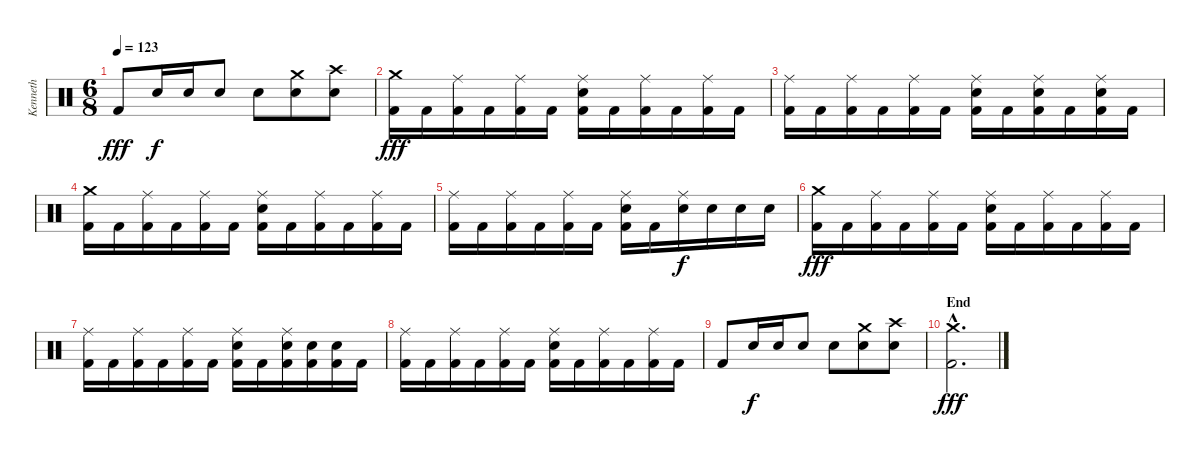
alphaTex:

\track ("Kenneth" "Kenneth") {instrument percussion}
\staff {score}
\articulation defaults
\ts (6 8)
\tempo 123
\clef neutral
\ks c "Kick (hit) 2".8{dy fff} "Snare (hit) 2".16{dy f} "Snare (hit) 2".16 "Snare (hit) 2".8 "Snare (hit) 2".8
("Crash medium (hit)" "Snare (hit) 2").8 ("Crash high (hit)" "Snare (hit) 2").8 |
("Crash medium (hit)" "Kick (hit) 2").16{dy fff} "Kick (hit) 2".16 ("Ride (middle)" "Kick (hit) 2").16 "Kick (hit) 2".16 ("Ride (middle)" "Kick (hit) 2").16 "Kick (hit) 2".16 ("Ride (middle)" "Snare (hit) 2" "Kick (hit) 2").16 "Kick (hit) 2".16 ("Ride (middle)" "Kick (hit) 2").16 "Kick (hit) 2".16 ("Ride (middle)" "Kick (hit) 2").16 "Kick (hit) 2".16 |
("Ride (middle)" "Kick (hit) 2").16 "Kick (hit) 2".16 ("Ride (middle)" "Kick (hit) 2").16 "Kick (hit) 2".16 ("Ride (middle)" "Kick (hit) 2").16 "Kick (hit) 2".16 ("Ride (middle)" "Snare (hit) 2" "Kick (hit) 2").16 "Kick (hit) 2".16 ("Ride (middle)" "Snare (hit) 2" "Kick (hit) 2").16 "Kick (hit) 2".16 ("Ride (middle)" "Snare (hit) 2" "Kick (hit) 2").16 "Kick (hit) 2".16 |
("Crash medium (hit)" "Kick (hit) 2").16 "Kick (hit) 2".16 ("Ride (middle)" "Kick (hit) 2").16 "Kick (hit) 2".16 ("Ride (middle)" "Kick (hit) 2").16 "Kick (hit) 2".16 ("Ride (middle)" "Snare (hit) 2" "Kick (hit) 2").16 "Kick (hit) 2".16 ("Ride (middle)" "Kick (hit) 2").16 "Kick (hit) 2".16 ("Ride (middle)" "Kick (hit) 2").16 "Kick (hit) 2".16 |
("Ride (middle)" "Kick (hit) 2").16 "Kick (hit) 2".16 ("Ride (middle)" "Kick (hit) 2").16 "Kick (hit) 2".16 ("Ride (middle)" "Kick (hit) 2").16 "Kick (hit) 2".16 ("Ride (middle)" "Snare (hit) 2" "Kick (hit) 2").16 "Kick (hit) 2".16 ("Ride (middle)" "Snare (hit) 2").16{dy f} "Snare (hit) 2".16 "Snare (hit) 2".16 "Snare (hit) 2".16 |
("Crash medium (hit)" "Kick (hit) 2").16{dy fff} "Kick (hit) 2".16 ("Ride (middle)" "Kick (hit) 2").16 "Kick (hit) 2".16 ("Ride (middle)" "Kick (hit) 2").16 "Kick (hit) 2".16 ("Ride (middle)" "Snare (hit) 2" "Kick (hit) 2").16 "Kick (hit) 2".16 ("Ride (middle)" "Kick (hit) 2").16 "Kick (hit) 2".16 ("Ride (middle)" "Kick (hit) 2").16 "Kick (hit) 2".16 |
("Ride (middle)" "Kick (hit) 2").16 "Kick (hit) 2".16 ("Ride (middle)" "Kick (hit) 2").16 "Kick (hit) 2".16 ("Ride (middle)" "Kick (hit) 2").16 "Kick (hit) 2".16 ("Ride (middle)" "Snare (hit) 2" "Kick (hit) 2").16 "Kick (hit) 2".16 ("Ride (middle)" "Snare (hit) 2" "Kick (hit) 2").16 ("Snare (hit) 2" "Kick (hit) 2").16 ("Snare (hit) 2" "Kick (hit) 2").16 "Kick (hit) 2".16 |
("Ride (middle)" "Kick (hit) 2").16 "Kick (hit) 2".16 ("Ride (middle)" "Kick (hit) 2").16 "Kick (hit) 2".16 ("Ride (middle)" "Kick (hit) 2").16 "Kick (hit) 2".16 ("Ride (middle)" "Snare (hit) 2" "Kick (hit) 2").16 "Kick (hit) 2".16 ("Ride (middle)" "Kick (hit) 2").16 "Kick (hit) 2".16 ("Ride (middle)" "Kick (hit) 2").16 "Kick (hit) 2".16 |
"Kick (hit) 2".8 "Snare (hit) 2".16{dy f} "Snare (hit) 2".16 "Snare (hit) 2".8 "Snare (hit) 2".8 ("Crash medium (hit)" "Snare (hit) 2").8 ("Crash high (hit)" "Snare (hit) 2").8 |
\section ("" "End")
("Crash medium (hit)"{hac} "Kick (hit) 2"{hac}).2{d dy fff}
